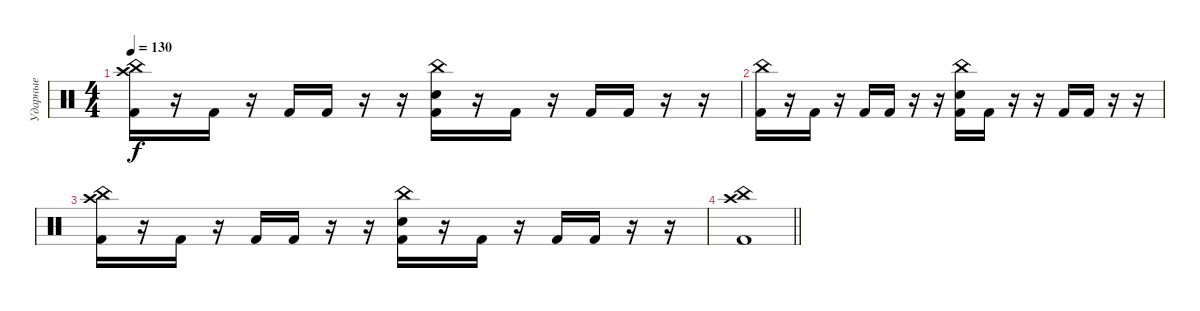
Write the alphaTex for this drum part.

\track ("Ударные" "Ударные") {instrument percussion}
\staff {score}
\articulation defaults
\ts (4 4)
\tempo 130
\clef neutral
\ks c
("Crash high (hit)" "China (hit)" "Kick (hit) 2").16{dy f} r.16 "Kick (hit) 2".16 r.16 "Kick (hit) 2".16 "Kick (hit) 2".16 r.16 r.16 ("China (hit)" "Electric Snare (hit)" "Kick (hit) 2").16 r.16 "Kick (hit) 2".16 r.16 "Kick (hit) 2".16 "Kick (hit) 2".16 r.16 r.16 |
("China (hit)" "Kick (hit) 2").16 r.16 "Kick (hit) 2".16 r.16 "Kick (hit) 2".16 "Kick (hit) 2".16 r.16 r.16 ("China (hit)" "Electric Snare (hit)" "Kick (hit) 2").16 "Kick (hit) 2".16 r.16 r.16 "Kick (hit) 2".16 "Kick (hit) 2".16 r.16 r.16 |
("Crash high (hit)" "China (hit)" "Kick (hit) 2").16 r.16 "Kick (hit) 2".16 r.16 "Kick (hit) 2".16 "Kick (hit) 2".16 r.16 r.16 ("China (hit)" "Electric Snare (hit)" "Kick (hit) 2").16 r.16 "Kick (hit) 2".16 r.16 "Kick (hit) 2".16 "Kick (hit) 2".16 r.16 r.16 |
\barLineRight lightlight
("Crash high (hit)" "China (hit)" "Kick (hit) 2").1
